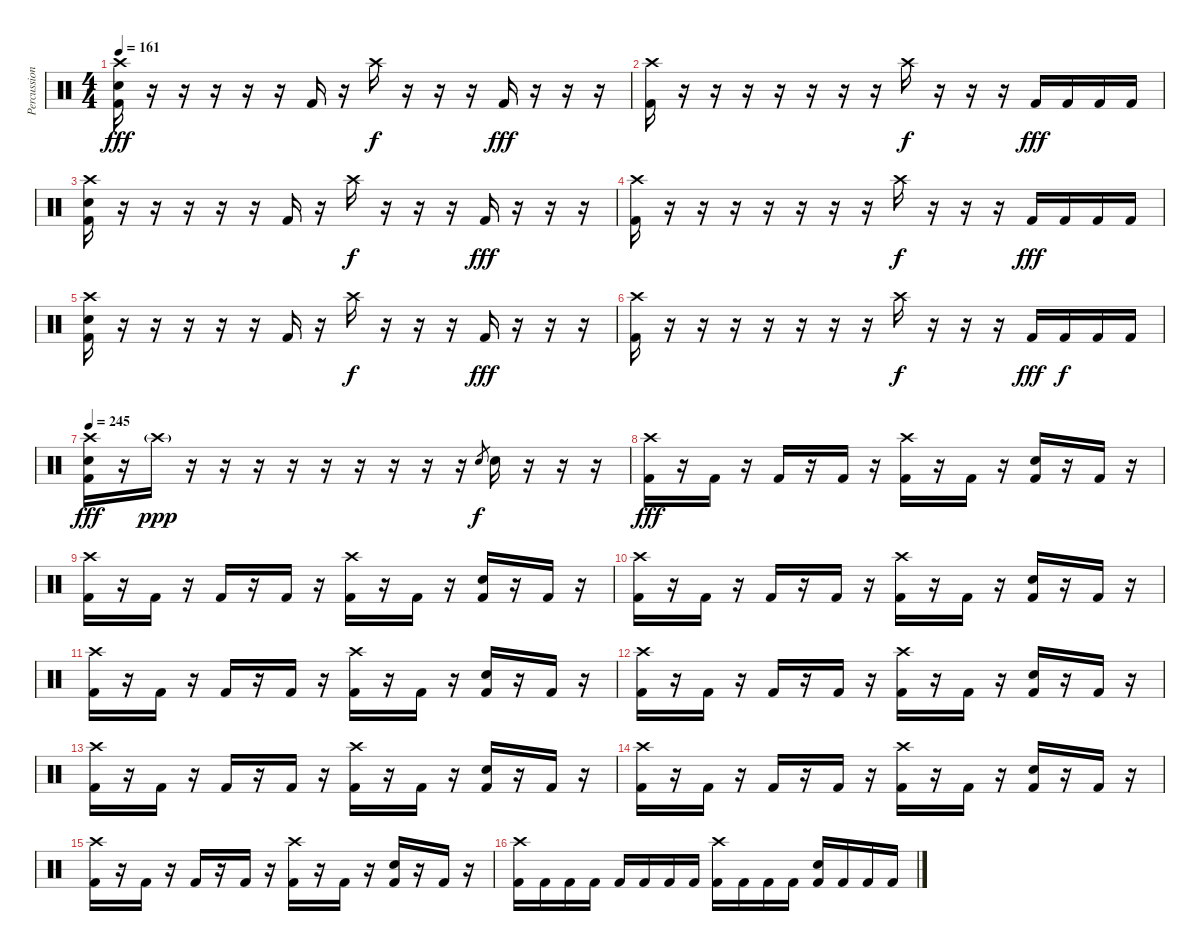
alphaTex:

\track ("Percussion" "Percussion") {instrument percussion}
\staff {score}
\articulation defaults
\ts (4 4)
\tempo 161
\clef neutral
\ks c
("Crash high (hit)" "Electric Snare (hit)" "Kick (hit) 2").16{dy fff} r.16 r.16 r.16 r.16 r.16 "Kick (hit) 2".16 r.16 "Crash high (hit)".16{dy f} r.16 r.16 r.16 "Kick (hit) 2".16{dy fff} r.16 r.16 r.16 |
("Crash high (hit)" "Kick (hit) 2").16 r.16 r.16 r.16 r.16 r.16 r.16 r.16 "Crash high (hit)".16{dy f} r.16 r.16 r.16 "Kick (hit) 2".16{dy fff} "Kick (hit) 2".16 "Kick (hit) 2".16 "Kick (hit) 2".16 |
("Crash high (hit)" "Electric Snare (hit)" "Kick (hit) 2").16 r.16 r.16 r.16 r.16 r.16 "Kick (hit) 2".16 r.16 "Crash high (hit)".16{dy f} r.16 r.16 r.16 "Kick (hit) 2".16{dy fff} r.16 r.16 r.16 |
("Crash high (hit)" "Kick (hit) 2").16 r.16 r.16 r.16 r.16 r.16 r.16 r.16 "Crash high (hit)".16{dy f} r.16 r.16 r.16 "Kick (hit) 2".16{dy fff} "Kick (hit) 2".16 "Kick (hit) 2".16 "Kick (hit) 2".16 |
("Crash high (hit)" "Electric Snare (hit)" "Kick (hit) 2").16 r.16 r.16 r.16 r.16 r.16 "Kick (hit) 2".16 r.16 "Crash high (hit)".16{dy f} r.16 r.16 r.16 "Kick (hit) 2".16{dy fff} r.16 r.16 r.16 |
("Crash high (hit)" "Kick (hit) 2").16 r.16 r.16 r.16 r.16 r.16 r.16 r.16 "Crash high (hit)".16{dy f} r.16 r.16 r.16 "Kick (hit) 2".16{dy fff} "Kick (hit) 2".16{dy f} "Kick (hit) 2".16 "Kick (hit) 2".16 |
\tempo 245
("Crash high (hit)" "Electric Snare (hit)" "Kick (hit) 2").16{dy fff} r.16 "Crash high (hit)"{g}.16{dy ppp} r.16 r.16 r.16 r.16 r.16 r.16 r.16 r.16 r.16 "Electric Snare (hit)".8{gr dy f} "Electric Snare (hit)".16 r.16 r.16 r.16 |
("Crash high (hit)" "Kick (hit) 2").16{dy fff} r.16 "Kick (hit) 2".16 r.16 "Kick (hit) 2".16 r.16 "Kick (hit) 2".16 r.16 ("Crash high (hit)" "Kick (hit) 2").16 r.16 "Kick (hit) 2".16 r.16 ("Electric Snare (hit)" "Kick (hit) 2").16 r.16 "Kick (hit) 2".16 r.16 |
("Crash high (hit)" "Kick (hit) 2").16 r.16 "Kick (hit) 2".16 r.16 "Kick (hit) 2".16 r.16 "Kick (hit) 2".16 r.16 ("Crash high (hit)" "Kick (hit) 2").16 r.16 "Kick (hit) 2".16 r.16 ("Electric Snare (hit)" "Kick (hit) 2").16 r.16 "Kick (hit) 2".16 r.16 |
("Crash high (hit)" "Kick (hit) 2").16 r.16 "Kick (hit) 2".16 r.16 "Kick (hit) 2".16 r.16 "Kick (hit) 2".16 r.16 ("Crash high (hit)" "Kick (hit) 2").16 r.16 "Kick (hit) 2".16 r.16 ("Electric Snare (hit)" "Kick (hit) 2").16 r.16 "Kick (hit) 2".16 r.16 |
("Crash high (hit)" "Kick (hit) 2").16 r.16 "Kick (hit) 2".16 r.16 "Kick (hit) 2".16 r.16 "Kick (hit) 2".16 r.16 ("Crash high (hit)" "Kick (hit) 2").16 r.16 "Kick (hit) 2".16 r.16 ("Electric Snare (hit)" "Kick (hit) 2").16 r.16 "Kick (hit) 2".16 r.16 |
("Crash high (hit)" "Kick (hit) 2").16 r.16 "Kick (hit) 2".16 r.16 "Kick (hit) 2".16 r.16 "Kick (hit) 2".16 r.16 ("Crash high (hit)" "Kick (hit) 2").16 r.16 "Kick (hit) 2".16 r.16 ("Electric Snare (hit)" "Kick (hit) 2").16 r.16 "Kick (hit) 2".16 r.16 |
("Crash high (hit)" "Kick (hit) 2").16 r.16 "Kick (hit) 2".16 r.16 "Kick (hit) 2".16 r.16 "Kick (hit) 2".16 r.16 ("Crash high (hit)" "Kick (hit) 2").16 r.16 "Kick (hit) 2".16 r.16 ("Electric Snare (hit)" "Kick (hit) 2").16 r.16 "Kick (hit) 2".16 r.16 |
("Crash high (hit)" "Kick (hit) 2").16 r.16 "Kick (hit) 2".16 r.16 "Kick (hit) 2".16 r.16 "Kick (hit) 2".16 r.16 ("Crash high (hit)" "Kick (hit) 2").16 r.16 "Kick (hit) 2".16 r.16 ("Electric Snare (hit)" "Kick (hit) 2").16 r.16 "Kick (hit) 2".16 r.16 |
("Crash high (hit)" "Kick (hit) 2").16 r.16 "Kick (hit) 2".16 r.16 "Kick (hit) 2".16 r.16 "Kick (hit) 2".16 r.16 ("Crash high (hit)" "Kick (hit) 2").16 r.16 "Kick (hit) 2".16 r.16 ("Electric Snare (hit)" "Kick (hit) 2").16 r.16 "Kick (hit) 2".16 r.16 |
("Crash high (hit)" "Kick (hit) 2").16 "Kick (hit) 2".16 "Kick (hit) 2".16 "Kick (hit) 2".16 "Kick (hit) 2".16 "Kick (hit) 2".16 "Kick (hit) 2".16 "Kick (hit) 2".16 ("Crash high (hit)" "Kick (hit) 2").16 "Kick (hit) 2".16 "Kick (hit) 2".16 "Kick (hit) 2".16 ("Electric Snare (hit)" "Kick (hit) 2").16 "Kick (hit) 2".16 "Kick (hit) 2".16 "Kick (hit) 2".16
